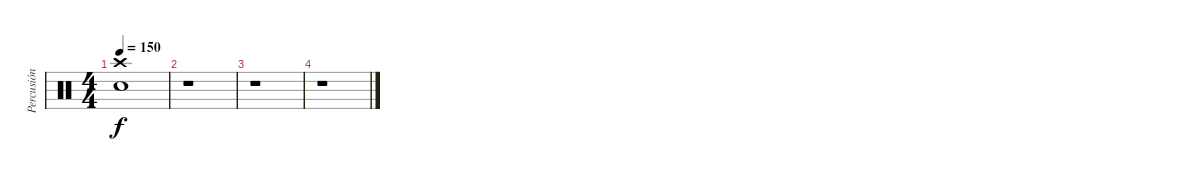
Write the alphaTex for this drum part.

\track ("Percusión" "Percusión") {instrument percussion}
\staff {score}
\articulation defaults
\ts (4 4)
\tempo 150
\clef neutral
\ks c
("Crash high (hit)" "Snare (hit) 2").1{dy f} |
r.1 |
r.1 |
r.1
